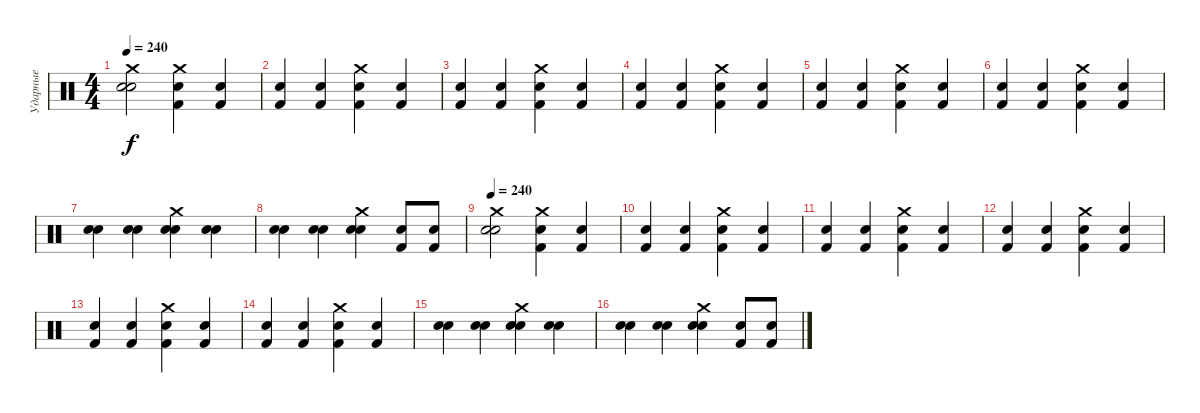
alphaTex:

\track ("Ударные" "Ударные") {instrument percussion}
\staff {score}
\articulation defaults
\ts (4 4)
\tempo 240
\clef neutral
\ks c
("Crash medium (hit)" "Snare (hit) 2" "Snare (hit) 2").2{dy f} ("Crash medium (hit)" "Kick (hit) 2" "Snare (hit) 2").4 ("Kick (hit) 2" "Snare (hit) 2").4 |
("Kick (hit) 2" "Snare (hit) 2").4 ("Snare (hit) 2" "Kick (hit) 2").4 ("Crash medium (hit)" "Snare (hit) 2" "Kick (hit) 2").4 ("Snare (hit) 2" "Kick (hit) 2").4 |
("Kick (hit) 2" "Snare (hit) 2").4 ("Kick (hit) 2" "Snare (hit) 2").4 ("Crash medium (hit)" "Kick (hit) 2" "Snare (hit) 2").4 ("Kick (hit) 2" "Snare (hit) 2").4 |
("Kick (hit) 2" "Snare (hit) 2").4 ("Kick (hit) 2" "Snare (hit) 2").4 ("Crash medium (hit)" "Snare (hit) 2" "Kick (hit) 2").4 ("Snare (hit) 2" "Kick (hit) 2").4 |
("Kick (hit) 2" "Snare (hit) 2").4 ("Kick (hit) 2" "Snare (hit) 2").4 ("Crash medium (hit)" "Kick (hit) 2" "Snare (hit) 2").4 ("Kick (hit) 2" "Snare (hit) 2").4 |
("Kick (hit) 2" "Snare (hit) 2").4 ("Kick (hit) 2" "Snare (hit) 2").4 ("Crash medium (hit)" "Snare (hit) 2" "Kick (hit) 2").4 ("Snare (hit) 2" "Kick (hit) 2").4 |
("Snare (hit) 2" "Snare (hit) 2").4 ("Snare (hit) 2" "Snare (hit) 2").4 ("Crash medium (hit)" "Snare (hit) 2" "Snare (hit) 2").4 ("Snare (hit) 2" "Snare (hit) 2").4 |
("Snare (hit) 2" "Snare (hit) 2").4 ("Snare (hit) 2" "Snare (hit) 2").4 ("Crash medium (hit)" "Snare (hit) 2" "Snare (hit) 2").4 ("Snare (hit) 2" "Kick (hit) 2").8 ("Snare (hit) 2" "Kick (hit) 2").8 |
\tempo 240
("Crash medium (hit)" "Snare (hit) 2" "Snare (hit) 2").2 ("Crash medium (hit)" "Kick (hit) 2" "Snare (hit) 2").4 ("Kick (hit) 2" "Snare (hit) 2").4 |
("Kick (hit) 2" "Snare (hit) 2").4 ("Snare (hit) 2" "Kick (hit) 2").4 ("Crash medium (hit)" "Snare (hit) 2" "Kick (hit) 2").4 ("Snare (hit) 2" "Kick (hit) 2").4 |
("Kick (hit) 2" "Snare (hit) 2").4 ("Kick (hit) 2" "Snare (hit) 2").4 ("Crash medium (hit)" "Kick (hit) 2" "Snare (hit) 2").4 ("Kick (hit) 2" "Snare (hit) 2").4 |
("Kick (hit) 2" "Snare (hit) 2").4 ("Kick (hit) 2" "Snare (hit) 2").4 ("Crash medium (hit)" "Snare (hit) 2" "Kick (hit) 2").4 ("Snare (hit) 2" "Kick (hit) 2").4 |
("Kick (hit) 2" "Snare (hit) 2").4 ("Kick (hit) 2" "Snare (hit) 2").4 ("Crash medium (hit)" "Kick (hit) 2" "Snare (hit) 2").4 ("Kick (hit) 2" "Snare (hit) 2").4 |
("Kick (hit) 2" "Snare (hit) 2").4 ("Kick (hit) 2" "Snare (hit) 2").4 ("Crash medium (hit)" "Snare (hit) 2" "Kick (hit) 2").4 ("Snare (hit) 2" "Kick (hit) 2").4 |
("Snare (hit) 2" "Snare (hit) 2").4 ("Snare (hit) 2" "Snare (hit) 2").4 ("Crash medium (hit)" "Snare (hit) 2" "Snare (hit) 2").4 ("Snare (hit) 2" "Snare (hit) 2").4 |
("Snare (hit) 2" "Snare (hit) 2").4 ("Snare (hit) 2" "Snare (hit) 2").4 ("Crash medium (hit)" "Snare (hit) 2" "Snare (hit) 2").4 ("Snare (hit) 2" "Kick (hit) 2").8 ("Snare (hit) 2" "Kick (hit) 2").8
